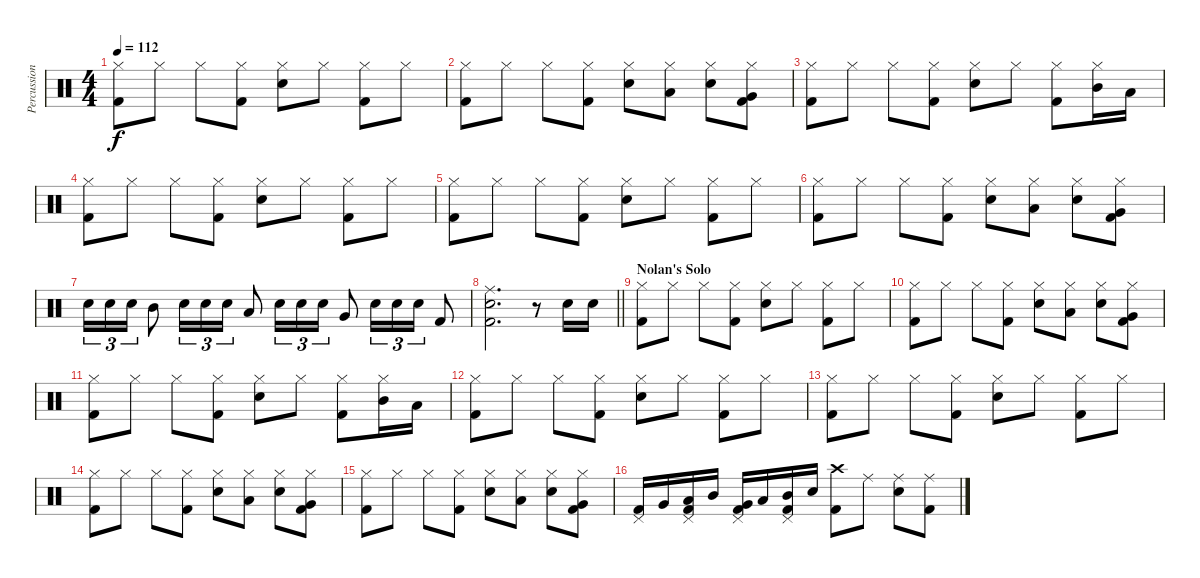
\track ("Percussion" "Percussion") {instrument percussion}
\staff {score}
\articulation defaults
\ts (4 4)
\tempo 112
\clef neutral
\ks c
("Hi-Hat (closed)" "Kick (hit) 2").8{dy f} "Hi-Hat (closed)".8 "Hi-Hat (closed)".8 ("Hi-Hat (closed)" "Kick (hit) 2").8 ("Hi-Hat (closed)" "Snare (hit) 2").8 "Hi-Hat (closed)".8 ("Hi-Hat (closed)" "Kick (hit) 2").8 "Hi-Hat (closed)".8 |
("Hi-Hat (closed)" "Kick (hit) 2").8 "Hi-Hat (closed)".8 "Hi-Hat (closed)".8 ("Hi-Hat (closed)" "Kick (hit) 2").8 ("Hi-Hat (closed)" "Snare (hit) 2").8 ("Hi-Hat (closed)" "Low Tom (hit)").8 ("Hi-Hat (closed)" "Snare (hit) 2").8 ("Hi-Hat (closed)" "Very Low Tom (hit)" "Kick (hit) 2").8 |
("Hi-Hat (closed)" "Kick (hit) 2").8 "Hi-Hat (closed)".8 "Hi-Hat (closed)".8 ("Hi-Hat (closed)" "Kick (hit) 2").8 ("Hi-Hat (closed)" "Snare (hit) 2").8 "Hi-Hat (closed)".8 ("Hi-Hat (closed)" "Kick (hit) 2").8 ("Hi-Hat (closed)" "Mid Tom (hit)").16 "Low Tom (hit)".16 |
("Hi-Hat (closed)" "Kick (hit) 2").8 "Hi-Hat (closed)".8 "Hi-Hat (closed)".8 ("Hi-Hat (closed)" "Kick (hit) 2").8 ("Hi-Hat (closed)" "Snare (hit) 2").8 "Hi-Hat (closed)".8 ("Hi-Hat (closed)" "Kick (hit) 2").8 "Hi-Hat (closed)".8 |
("Hi-Hat (closed)" "Kick (hit) 2").8 "Hi-Hat (closed)".8 "Hi-Hat (closed)".8 ("Hi-Hat (closed)" "Kick (hit) 2").8 ("Hi-Hat (closed)" "Snare (hit) 2").8 "Hi-Hat (closed)".8 ("Hi-Hat (closed)" "Kick (hit) 2").8 "Hi-Hat (closed)".8 |
("Hi-Hat (closed)" "Kick (hit) 2").8 "Hi-Hat (closed)".8 "Hi-Hat (closed)".8 ("Hi-Hat (closed)" "Kick (hit) 2").8 ("Hi-Hat (closed)" "Snare (hit) 2").8 ("Hi-Hat (closed)" "Low Tom (hit)").8 ("Hi-Hat (closed)" "Snare (hit) 2").8 ("Hi-Hat (closed)" "Very Low Tom (hit)" "Kick (hit) 2").8 |
"Snare (hit) 2".16{tu (3 2)} "Snare (hit) 2".16{tu (3 2)} "Snare (hit) 2".16{tu (3 2)} "Mid Tom (hit)".8 "Snare (hit) 2".16{tu (3 2)} "Snare (hit) 2".16{tu (3 2)} "Snare (hit) 2".16{tu (3 2)} "Low Tom (hit)".8 "Snare (hit) 2".16{tu (3 2)} "Snare (hit) 2".16{tu (3 2)} "Snare (hit) 2".16{tu (3 2)} "Very Low Tom (hit)".8 "Snare (hit) 2".16{tu (3 2)} "Snare (hit) 2".16{tu (3 2)} "Snare (hit) 2".16{tu (3 2)} "Kick (hit) 2".8 |
\barLineRight lightlight
("Ride (middle)" "Snare (hit) 2" "Kick (hit) 2").2{d} r.8 "Snare (hit) 2".16 "Snare (hit) 2".16 |
\section ("" "Nolan's Solo")
("Hi-Hat (closed)" "Kick (hit) 2").8 "Hi-Hat (closed)".8 "Hi-Hat (closed)".8 ("Hi-Hat (closed)" "Kick (hit) 2").8 ("Hi-Hat (closed)" "Snare (hit) 2").8 "Hi-Hat (closed)".8 ("Hi-Hat (closed)" "Kick (hit) 2").8 "Hi-Hat (closed)".8 |
("Hi-Hat (closed)" "Kick (hit) 2").8 "Hi-Hat (closed)".8 "Hi-Hat (closed)".8 ("Hi-Hat (closed)" "Kick (hit) 2").8 ("Hi-Hat (closed)" "Snare (hit) 2").8 ("Hi-Hat (closed)" "Low Tom (hit)").8 ("Hi-Hat (closed)" "Snare (hit) 2").8 ("Hi-Hat (closed)" "Very Low Tom (hit)" "Kick (hit) 2").8 |
("Hi-Hat (closed)" "Kick (hit) 2").8 "Hi-Hat (closed)".8 "Hi-Hat (closed)".8 ("Hi-Hat (closed)" "Kick (hit) 2").8 ("Hi-Hat (closed)" "Snare (hit) 2").8 "Hi-Hat (closed)".8 ("Hi-Hat (closed)" "Kick (hit) 2").8 ("Hi-Hat (closed)" "Mid Tom (hit)").16 "Low Tom (hit)".16 |
("Hi-Hat (closed)" "Kick (hit) 2").8 "Hi-Hat (closed)".8 "Hi-Hat (closed)".8 ("Hi-Hat (closed)" "Kick (hit) 2").8 ("Hi-Hat (closed)" "Snare (hit) 2").8 "Hi-Hat (closed)".8 ("Hi-Hat (closed)" "Kick (hit) 2").8 "Hi-Hat (closed)".8 |
("Hi-Hat (closed)" "Kick (hit) 2").8 "Hi-Hat (closed)".8 "Hi-Hat (closed)".8 ("Hi-Hat (closed)" "Kick (hit) 2").8 ("Hi-Hat (closed)" "Snare (hit) 2").8 "Hi-Hat (closed)".8 ("Hi-Hat (closed)" "Kick (hit) 2").8 "Hi-Hat (closed)".8 |
("Hi-Hat (closed)" "Kick (hit) 2").8 "Hi-Hat (closed)".8 "Hi-Hat (closed)".8 ("Hi-Hat (closed)" "Kick (hit) 2").8 ("Hi-Hat (closed)" "Snare (hit) 2").8 ("Hi-Hat (closed)" "Low Tom (hit)").8 ("Hi-Hat (closed)" "Snare (hit) 2").8 ("Hi-Hat (closed)" "Very Low Tom (hit)" "Kick (hit) 2").8 |
("Hi-Hat (closed)" "Kick (hit) 2").8 "Hi-Hat (closed)".8 "Hi-Hat (closed)".8 ("Hi-Hat (closed)" "Kick (hit) 2").8 ("Hi-Hat (closed)" "Snare (hit) 2").8 ("Hi-Hat (closed)" "Low Tom (hit)").8 ("Hi-Hat (closed)" "Snare (hit) 2").8 ("Hi-Hat (closed)" "Very Low Tom (hit)" "Kick (hit) 2").8 |
("Pedal Hi-Hat (hit)" "Kick (hit) 2").16 "Very Low Tom (hit)".16 ("Pedal Hi-Hat (hit)" "Low Tom (hit)" "Kick (hit) 2").16 "Mid Tom (hit)".16 ("Pedal Hi-Hat (hit)" "Very Low Tom (hit)" "Kick (hit) 2").16 "Low Tom (hit)".16 ("Pedal Hi-Hat (hit)" "Mid Tom (hit)" "Kick (hit) 2").16 "Snare (hit) 2".16 ("Crash high (hit)" "Kick (hit) 2").8 "Ride (middle)".8 ("Ride (middle)" "Snare (hit) 2").8 ("Ride (middle)" "Kick (hit) 2").8
